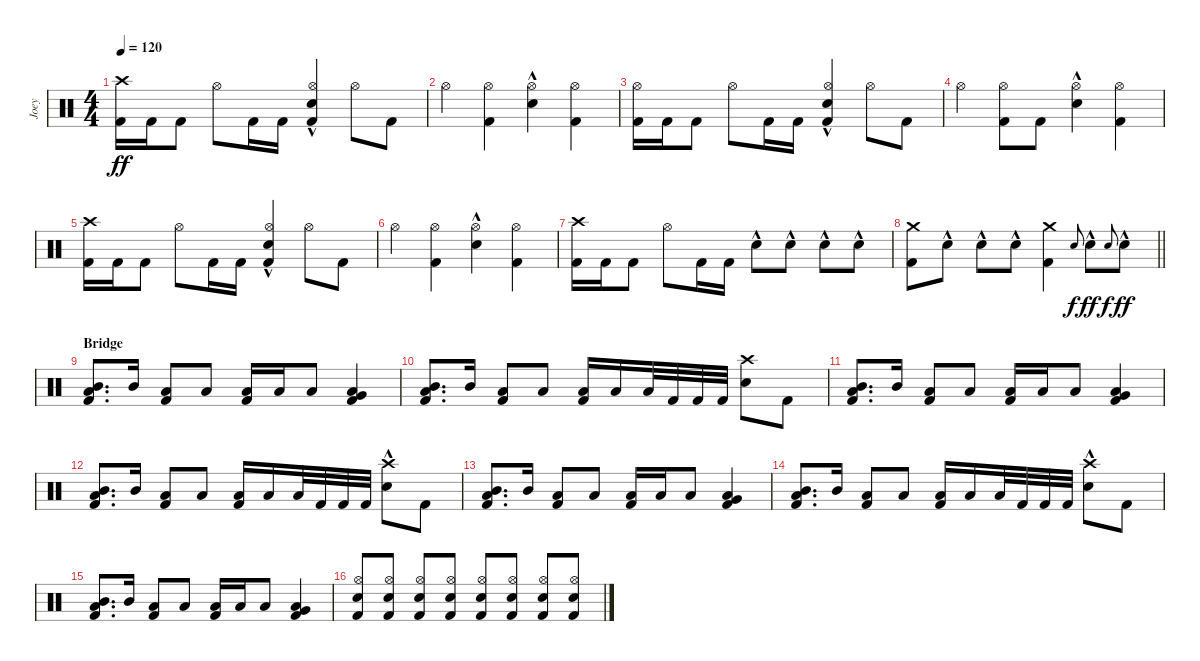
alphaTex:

\track ("Joey" "Joey") {instrument percussion}
\staff {score}
\articulation defaults
\ts (4 4)
\tempo 120
\clef neutral
\ks c
("Crash high (hit)" "Kick (hit) 2").16{dy ff} "Kick (hit) 2".16 "Kick (hit) 2".8 "Hi-Hat (open)".8 "Kick (hit) 2".16 "Kick (hit) 2".16 ("Hi-Hat (open)" "Snare (hit) 2"{hac} "Kick (hit) 2").4 "Hi-Hat (open)".8 "Kick (hit) 2".8 |
"Hi-Hat (open)".4 ("Hi-Hat (open)" "Kick (hit) 2").4 ("Hi-Hat (open)" "Snare (hit) 2"{hac}).4 ("Hi-Hat (open)" "Kick (hit) 2").4 |
("Hi-Hat (open)" "Kick (hit) 2").16 "Kick (hit) 2".16 "Kick (hit) 2".8 "Hi-Hat (open)".8 "Kick (hit) 2".16 "Kick (hit) 2".16 ("Hi-Hat (open)" "Snare (hit) 2"{hac} "Kick (hit) 2").4 "Hi-Hat (open)".8 "Kick (hit) 2".8 |
"Hi-Hat (open)".4 ("Hi-Hat (open)" "Kick (hit) 2").8 "Kick (hit) 2".8 ("Hi-Hat (open)" "Snare (hit) 2"{hac}).4 ("Hi-Hat (open)" "Kick (hit) 2").4 |
("Crash high (hit)" "Kick (hit) 2").16 "Kick (hit) 2".16 "Kick (hit) 2".8 "Hi-Hat (open)".8 "Kick (hit) 2".16 "Kick (hit) 2".16 ("Hi-Hat (open)" "Snare (hit) 2"{hac} "Kick (hit) 2").4 "Hi-Hat (open)".8 "Kick (hit) 2".8 |
"Hi-Hat (open)".4 ("Hi-Hat (open)" "Kick (hit) 2").4 ("Hi-Hat (open)" "Snare (hit) 2"{hac}).4 ("Hi-Hat (open)" "Kick (hit) 2").4 |
("Crash high (hit)" "Kick (hit) 2").16 "Kick (hit) 2".16 "Kick (hit) 2".8 "Hi-Hat (open)".8 "Kick (hit) 2".16 "Kick (hit) 2".16 "Snare (hit) 2"{hac}.8 "Snare (hit) 2"{hac}.8 "Snare (hit) 2"{hac}.8 "Snare (hit) 2"{hac}.8 |
\barLineRight lightlight
("Crash medium (hit)" "Kick (hit) 2").8 "Snare (hit) 2"{hac}.8 "Snare (hit) 2"{hac}.8 "Snare (hit) 2"{hac}.8 ("Crash medium (hit)" "Kick (hit) 2").4 "Snare (hit) 2".8{gr onbeat dy f} "Snare (hit) 2"{hac}.8{dy ff} "Snare (hit) 2".8{gr onbeat dy f} "Snare (hit) 2"{hac}.8{dy ff} |
\section ("" "Bridge")
("Mid Tom (hit)" "Low Floor Tom (hit)" "Kick (hit) 2").8{d} "Mid Tom (hit)".16 ("Low Floor Tom (hit)" "Kick (hit) 2").8 "Low Tom (hit)".8 ("Low Floor Tom (hit)" "Kick (hit) 2").16 "Low Tom (hit)".16 "Low Floor Tom (hit)".8 ("Very Low Tom (hit)" "Low Floor Tom (hit)" "Kick (hit) 2").4 |
("Mid Tom (hit)" "Low Floor Tom (hit)" "Kick (hit) 2").8{d} "Mid Tom (hit)".16 ("Low Floor Tom (hit)" "Kick (hit) 2").8 "Low Tom (hit)".8 ("Low Floor Tom (hit)" "Kick (hit) 2").16 "Low Tom (hit)".16 "Low Floor Tom (hit)".32 "Kick (hit) 2".32 "Kick (hit) 2".32 "Kick (hit) 2".32 ("Crash high (hit)" "Snare (hit) 2").8 "Kick (hit) 2".8 |
("Mid Tom (hit)" "Low Floor Tom (hit)" "Kick (hit) 2").8{d} "Mid Tom (hit)".16 ("Low Floor Tom (hit)" "Kick (hit) 2").8 "Low Tom (hit)".8 ("Low Floor Tom (hit)" "Kick (hit) 2").16 "Low Tom (hit)".16 "Low Floor Tom (hit)".8 ("Very Low Tom (hit)" "Low Floor Tom (hit)" "Kick (hit) 2").4 |
("Mid Tom (hit)" "Low Floor Tom (hit)" "Kick (hit) 2").8{d} "Mid Tom (hit)".16 ("Low Floor Tom (hit)" "Kick (hit) 2").8 "Low Tom (hit)".8 ("Low Floor Tom (hit)" "Kick (hit) 2").16 "Low Tom (hit)".16 "Low Floor Tom (hit)".32 "Kick (hit) 2".32 "Kick (hit) 2".32 "Kick (hit) 2".32 ("Crash high (hit)" "Snare (hit) 2"{hac}).8 "Kick (hit) 2".8 |
("Mid Tom (hit)" "Low Floor Tom (hit)" "Kick (hit) 2").8{d} "Mid Tom (hit)".16 ("Low Floor Tom (hit)" "Kick (hit) 2").8 "Low Tom (hit)".8 ("Low Floor Tom (hit)" "Kick (hit) 2").16 "Low Tom (hit)".16 "Low Floor Tom (hit)".8 ("Very Low Tom (hit)" "Low Floor Tom (hit)" "Kick (hit) 2").4 |
("Mid Tom (hit)" "Low Floor Tom (hit)" "Kick (hit) 2").8{d} "Mid Tom (hit)".16 ("Low Floor Tom (hit)" "Kick (hit) 2").8 "Low Tom (hit)".8 ("Low Floor Tom (hit)" "Kick (hit) 2").16 "Low Tom (hit)".16 "Low Floor Tom (hit)".32 "Kick (hit) 2".32 "Kick (hit) 2".32 "Kick (hit) 2".32 ("Crash high (hit)" "Snare (hit) 2"{hac}).8 "Kick (hit) 2".8 |
("Mid Tom (hit)" "Low Floor Tom (hit)" "Kick (hit) 2").8{d} "Mid Tom (hit)".16 ("Low Floor Tom (hit)" "Kick (hit) 2").8 "Low Tom (hit)".8 ("Low Floor Tom (hit)" "Kick (hit) 2").16 "Low Tom (hit)".16 "Low Floor Tom (hit)".8 ("Very Low Tom (hit)" "Low Floor Tom (hit)" "Kick (hit) 2").4 |
("Hi-Hat (open)" "Snare (hit) 2" "Kick (hit) 2").8 ("Hi-Hat (open)" "Snare (hit) 2" "Kick (hit) 2").8 ("Hi-Hat (open)" "Snare (hit) 2" "Kick (hit) 2").8 ("Hi-Hat (open)" "Snare (hit) 2" "Kick (hit) 2").8 ("Hi-Hat (open)" "Snare (hit) 2" "Kick (hit) 2").8 ("Hi-Hat (open)" "Snare (hit) 2" "Kick (hit) 2").8 ("Hi-Hat (open)" "Snare (hit) 2" "Kick (hit) 2").8 ("Hi-Hat (open)" "Snare (hit) 2" "Kick (hit) 2").8
